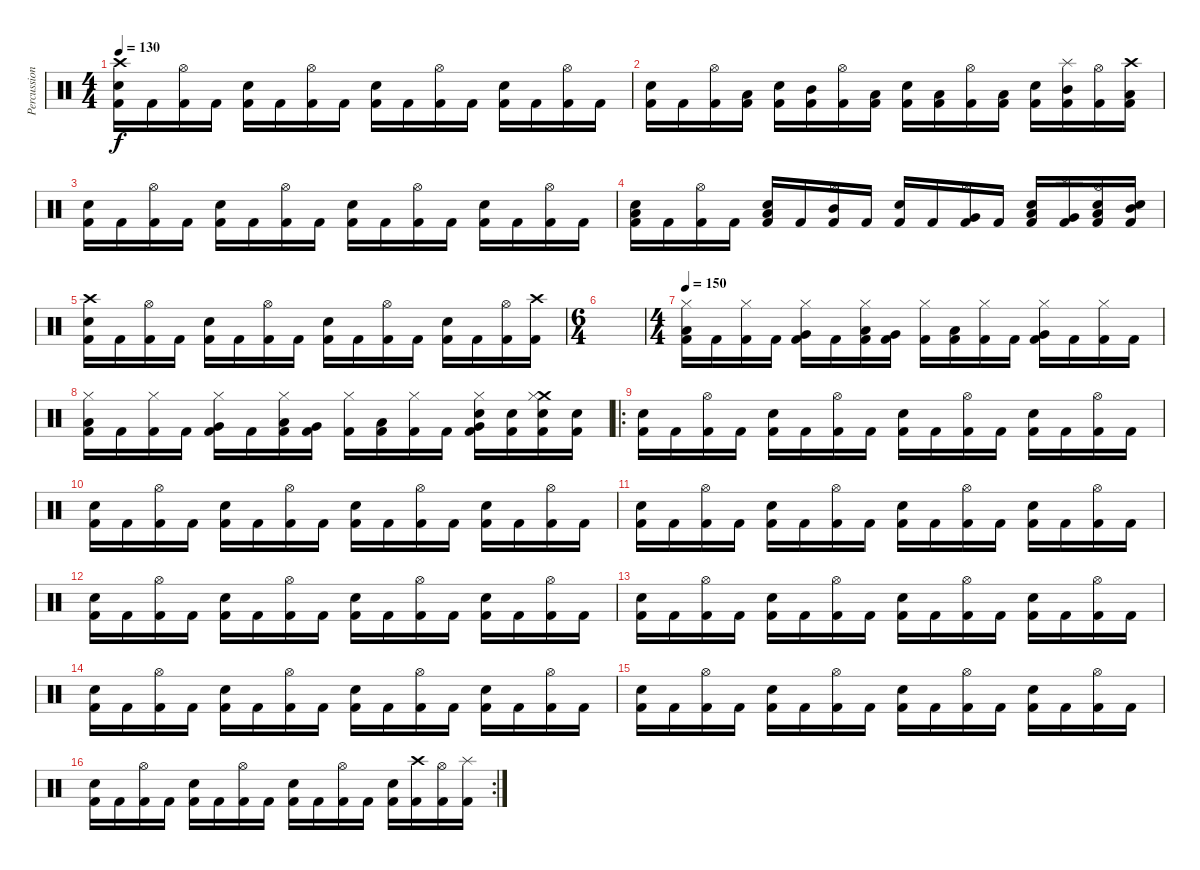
\track ("Percussions" "Percussion") {instrument percussion}
\staff {score}
\articulation defaults
\ts (4 4)
\tempo 130
\clef neutral
\ks c
("Crash high (hit)" "Electric Snare (hit)" "Kick (hit) 2").16{dy f} "Kick (hit) 2".16 ("Hi-Hat (open)" "Kick (hit) 2").16 "Kick (hit) 2".16 ("Electric Snare (hit)" "Kick (hit) 2").16 "Kick (hit) 2".16 ("Hi-Hat (open)" "Kick (hit) 2").16 "Kick (hit) 2".16 ("Electric Snare (hit)" "Kick (hit) 2").16 "Kick (hit) 2".16 ("Hi-Hat (open)" "Kick (hit) 2").16 "Kick (hit) 2".16 ("Electric Snare (hit)" "Kick (hit) 2").16 "Kick (hit) 2".16 ("Hi-Hat (open)" "Kick (hit) 2").16 "Kick (hit) 2".16 |
("Electric Snare (hit)" "Kick (hit) 2").16 "Kick (hit) 2".16 ("Hi-Hat (open)" "Kick (hit) 2").16 ("Low Tom (hit)" "Kick (hit) 2").16 ("Electric Snare (hit)" "Kick (hit) 2").16 ("Mid Tom (hit)" "Kick (hit) 2").16 ("Hi-Hat (open)" "Kick (hit) 2").16 ("Low Tom (hit)" "Kick (hit) 2").16 ("Electric Snare (hit)" "Kick (hit) 2").16 ("Low Floor Tom (hit)" "Kick (hit) 2").16 ("Hi-Hat (open)" "Kick (hit) 2").16 ("Low Tom (hit)" "Kick (hit) 2").16 ("Electric Snare (hit)" "Kick (hit) 2").16 ("Splash (hit)" "Mid Tom (hit)" "Kick (hit) 2").16 ("Hi-Hat (open)" "Kick (hit) 2").16 ("Crash high (hit)" "Low Tom (hit)" "Kick (hit) 2").16 |
("Electric Snare (hit)" "Kick (hit) 2").16 "Kick (hit) 2".16 ("Hi-Hat (open)" "Kick (hit) 2").16 "Kick (hit) 2".16 ("Electric Snare (hit)" "Kick (hit) 2").16 "Kick (hit) 2".16 ("Hi-Hat (open)" "Kick (hit) 2").16 "Kick (hit) 2".16 ("Electric Snare (hit)" "Kick (hit) 2").16 "Kick (hit) 2".16 ("Hi-Hat (open)" "Kick (hit) 2").16 "Kick (hit) 2".16 ("Electric Snare (hit)" "Kick (hit) 2").16 "Kick (hit) 2".16 ("Hi-Hat (open)" "Kick (hit) 2").16 "Kick (hit) 2".16 |
("Low Floor Tom (hit)" "Electric Snare (hit)" "Kick (hit) 2").16 "Kick (hit) 2".16 ("Hi-Hat (open)" "Kick (hit) 2").16 "Kick (hit) 2".16 ("Low Tom (hit)" "Electric Snare (hit)" "Kick (hit) 2").16 "Kick (hit) 2".16 ("Hi-Hat (open)" "Mid Tom (hit)" "Kick (hit) 2").16 "Kick (hit) 2".16 ("Electric Snare (hit)" "Kick (hit) 2").16 "Kick (hit) 2".16 ("Hi-Hat (open)" "Very Low Tom (hit)" "Kick (hit) 2").16 "Kick (hit) 2".16 ("Low Floor Tom (hit)" "Electric Snare (hit)" "Kick (hit) 2").16 ("Splash (hit)" "Very Low Tom (hit)" "Kick (hit) 2").16 ("Hi-Hat (open)" "Low Tom (hit)" "Electric Snare (hit)" "Kick (hit) 2").16 ("Mid Tom (hit)" "Electric Snare (hit)" "Kick (hit) 2").16 |
("Crash high (hit)" "Electric Snare (hit)" "Kick (hit) 2").16 "Kick (hit) 2".16 ("Hi-Hat (open)" "Kick (hit) 2").16 "Kick (hit) 2".16 ("Electric Snare (hit)" "Kick (hit) 2").16 "Kick (hit) 2".16 ("Hi-Hat (open)" "Kick (hit) 2").16 "Kick (hit) 2".16 ("Electric Snare (hit)" "Kick (hit) 2").16 "Kick (hit) 2".16 ("Hi-Hat (open)" "Kick (hit) 2").16 "Kick (hit) 2".16 ("Electric Snare (hit)" "Kick (hit) 2").16 "Kick (hit) 2".16 ("Hi-Hat (open)" "Kick (hit) 2").16 ("Crash high (hit)" "Kick (hit) 2").16 |
\ts (6 4)
|
\ts (4 4)
\tempo 150
("Hi-Hat (closed)" "Low Floor Tom (hit)" "Kick (hit) 2").16 "Kick (hit) 2".16 ("Hi-Hat (closed)" "Kick (hit) 2").16 "Kick (hit) 2".16 ("Hi-Hat (closed)" "Very Low Tom (hit)" "Kick (hit) 2").16 "Kick (hit) 2".16 ("Hi-Hat (closed)" "Low Tom (hit)" "Kick (hit) 2").16 ("Very Low Tom (hit)" "Kick (hit) 2").16 ("Hi-Hat (closed)" "Kick (hit) 2").16 ("Low Floor Tom (hit)" "Kick (hit) 2").16 ("Hi-Hat (closed)" "Kick (hit) 2").16 "Kick (hit) 2".16 ("Hi-Hat (closed)" "Very Low Tom (hit)" "Kick (hit) 2").16 "Kick (hit) 2".16 ("Hi-Hat (closed)" "Kick (hit) 2").16 "Kick (hit) 2".16 |
("Hi-Hat (closed)" "Low Floor Tom (hit)" "Kick (hit) 2").16 "Kick (hit) 2".16 ("Hi-Hat (closed)" "Kick (hit) 2").16 "Kick (hit) 2".16 ("Hi-Hat (closed)" "Very Low Tom (hit)" "Kick (hit) 2").16 "Kick (hit) 2".16 ("Hi-Hat (closed)" "Low Tom (hit)" "Kick (hit) 2").16 ("Very Low Tom (hit)" "Kick (hit) 2").16 ("Hi-Hat (closed)" "Kick (hit) 2").16 ("Low Floor Tom (hit)" "Kick (hit) 2").16 ("Hi-Hat (closed)" "Kick (hit) 2").16 "Kick (hit) 2".16 ("Hi-Hat (closed)" "Very Low Tom (hit)" "Electric Snare (hit)" "Kick (hit) 2").16 ("Electric Snare (hit)" "Kick (hit) 2").16 ("Crash medium (hit)" "Hi-Hat (closed)" "Electric Snare (hit)" "Kick (hit) 2").16 ("Electric Snare (hit)" "Kick (hit) 2").16 |
\ro
("Electric Snare (hit)" "Kick (hit) 2").16 "Kick (hit) 2".16 ("Hi-Hat (open)" "Kick (hit) 2").16 "Kick (hit) 2".16 ("Electric Snare (hit)" "Kick (hit) 2").16 "Kick (hit) 2".16 ("Hi-Hat (open)" "Kick (hit) 2").16 "Kick (hit) 2".16 ("Electric Snare (hit)" "Kick (hit) 2").16 "Kick (hit) 2".16 ("Hi-Hat (open)" "Kick (hit) 2").16 "Kick (hit) 2".16 ("Electric Snare (hit)" "Kick (hit) 2").16 "Kick (hit) 2".16 ("Hi-Hat (open)" "Kick (hit) 2").16 "Kick (hit) 2".16 |
("Electric Snare (hit)" "Kick (hit) 2").16 "Kick (hit) 2".16 ("Hi-Hat (open)" "Kick (hit) 2").16 "Kick (hit) 2".16 ("Electric Snare (hit)" "Kick (hit) 2").16 "Kick (hit) 2".16 ("Hi-Hat (open)" "Kick (hit) 2").16 "Kick (hit) 2".16 ("Electric Snare (hit)" "Kick (hit) 2").16 "Kick (hit) 2".16 ("Hi-Hat (open)" "Kick (hit) 2").16 "Kick (hit) 2".16 ("Electric Snare (hit)" "Kick (hit) 2").16 "Kick (hit) 2".16 ("Hi-Hat (open)" "Kick (hit) 2").16 "Kick (hit) 2".16 |
("Electric Snare (hit)" "Kick (hit) 2").16 "Kick (hit) 2".16 ("Hi-Hat (open)" "Kick (hit) 2").16 "Kick (hit) 2".16 ("Electric Snare (hit)" "Kick (hit) 2").16 "Kick (hit) 2".16 ("Hi-Hat (open)" "Kick (hit) 2").16 "Kick (hit) 2".16 ("Electric Snare (hit)" "Kick (hit) 2").16 "Kick (hit) 2".16 ("Hi-Hat (open)" "Kick (hit) 2").16 "Kick (hit) 2".16 ("Electric Snare (hit)" "Kick (hit) 2").16 "Kick (hit) 2".16 ("Hi-Hat (open)" "Kick (hit) 2").16 "Kick (hit) 2".16 |
("Electric Snare (hit)" "Kick (hit) 2").16 "Kick (hit) 2".16 ("Hi-Hat (open)" "Kick (hit) 2").16 "Kick (hit) 2".16 ("Electric Snare (hit)" "Kick (hit) 2").16 "Kick (hit) 2".16 ("Hi-Hat (open)" "Kick (hit) 2").16 "Kick (hit) 2".16 ("Electric Snare (hit)" "Kick (hit) 2").16 "Kick (hit) 2".16 ("Hi-Hat (open)" "Kick (hit) 2").16 "Kick (hit) 2".16 ("Electric Snare (hit)" "Kick (hit) 2").16 "Kick (hit) 2".16 ("Hi-Hat (open)" "Kick (hit) 2").16 "Kick (hit) 2".16 |
("Electric Snare (hit)" "Kick (hit) 2").16 "Kick (hit) 2".16 ("Hi-Hat (open)" "Kick (hit) 2").16 "Kick (hit) 2".16 ("Electric Snare (hit)" "Kick (hit) 2").16 "Kick (hit) 2".16 ("Hi-Hat (open)" "Kick (hit) 2").16 "Kick (hit) 2".16 ("Electric Snare (hit)" "Kick (hit) 2").16 "Kick (hit) 2".16 ("Hi-Hat (open)" "Kick (hit) 2").16 "Kick (hit) 2".16 ("Electric Snare (hit)" "Kick (hit) 2").16 "Kick (hit) 2".16 ("Hi-Hat (open)" "Kick (hit) 2").16 "Kick (hit) 2".16 |
("Electric Snare (hit)" "Kick (hit) 2").16 "Kick (hit) 2".16 ("Hi-Hat (open)" "Kick (hit) 2").16 "Kick (hit) 2".16 ("Electric Snare (hit)" "Kick (hit) 2").16 "Kick (hit) 2".16 ("Hi-Hat (open)" "Kick (hit) 2").16 "Kick (hit) 2".16 ("Electric Snare (hit)" "Kick (hit) 2").16 "Kick (hit) 2".16 ("Hi-Hat (open)" "Kick (hit) 2").16 "Kick (hit) 2".16 ("Electric Snare (hit)" "Kick (hit) 2").16 "Kick (hit) 2".16 ("Hi-Hat (open)" "Kick (hit) 2").16 "Kick (hit) 2".16 |
("Electric Snare (hit)" "Kick (hit) 2").16 "Kick (hit) 2".16 ("Hi-Hat (open)" "Kick (hit) 2").16 "Kick (hit) 2".16 ("Electric Snare (hit)" "Kick (hit) 2").16 "Kick (hit) 2".16 ("Hi-Hat (open)" "Kick (hit) 2").16 "Kick (hit) 2".16 ("Electric Snare (hit)" "Kick (hit) 2").16 "Kick (hit) 2".16 ("Hi-Hat (open)" "Kick (hit) 2").16 "Kick (hit) 2".16 ("Electric Snare (hit)" "Kick (hit) 2").16 "Kick (hit) 2".16 ("Hi-Hat (open)" "Kick (hit) 2").16 "Kick (hit) 2".16 |
\rc 2
("Electric Snare (hit)" "Kick (hit) 2").16 "Kick (hit) 2".16 ("Hi-Hat (open)" "Kick (hit) 2").16 "Kick (hit) 2".16 ("Electric Snare (hit)" "Kick (hit) 2").16 "Kick (hit) 2".16 ("Hi-Hat (open)" "Kick (hit) 2").16 "Kick (hit) 2".16 ("Electric Snare (hit)" "Kick (hit) 2").16 "Kick (hit) 2".16 ("Hi-Hat (open)" "Kick (hit) 2").16 "Kick (hit) 2".16 ("Electric Snare (hit)" "Kick (hit) 2").16 ("Crash high (hit)" "Kick (hit) 2").16 ("Hi-Hat (open)" "Kick (hit) 2").16 ("Splash (hit)" "Kick (hit) 2").16
